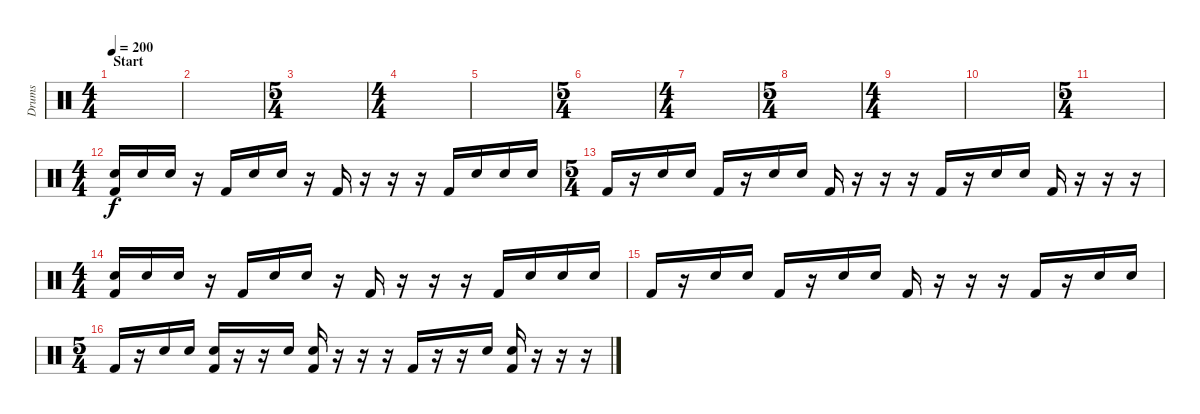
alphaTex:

\track ("Drums" "Drums") {instrument percussion}
\staff {score}
\articulation defaults
\ts (4 4)
\section ("" "Start")
\tempo 200
\clef neutral
\ks c
|
|
\ts (5 4)
|
\ts (4 4)
|
|
\ts (5 4)
|
\ts (4 4)
|
\ts (5 4)
|
\ts (4 4)
|
|
\ts (5 4)
|
\ts (4 4)
("Electric Snare (hit)" "Kick (hit) 2").16 "Electric Snare (hit)".16 "Electric Snare (hit)".16 r.16 "Kick (hit) 2".16 "Electric Snare (hit)".16 "Electric Snare (hit)".16 r.16 "Kick (hit) 2".16 r.16 r.16 r.16 "Kick (hit) 2".16 "Electric Snare (hit)".16 "Electric Snare (hit)".16 "Electric Snare (hit)".16 |
\ts (5 4)
"Kick (hit) 2".16 r.16 "Electric Snare (hit)".16 "Electric Snare (hit)".16 "Kick (hit) 2".16 r.16 "Electric Snare (hit)".16 "Electric Snare (hit)".16 "Kick (hit) 2".16 r.16 r.16 r.16 "Kick (hit) 2".16 r.16 "Electric Snare (hit)".16 "Electric Snare (hit)".16 "Kick (hit) 2".16 r.16 r.16 r.16 |
\ts (4 4)
("Electric Snare (hit)" "Kick (hit) 2").16 "Electric Snare (hit)".16 "Electric Snare (hit)".16 r.16 "Kick (hit) 2".16 "Electric Snare (hit)".16 "Electric Snare (hit)".16 r.16 "Kick (hit) 2".16 r.16 r.16 r.16 "Kick (hit) 2".16 "Electric Snare (hit)".16 "Electric Snare (hit)".16 "Electric Snare (hit)".16 |
"Kick (hit) 2".16 r.16 "Electric Snare (hit)".16 "Electric Snare (hit)".16 "Kick (hit) 2".16 r.16 "Electric Snare (hit)".16 "Electric Snare (hit)".16 "Kick (hit) 2".16 r.16 r.16 r.16 "Kick (hit) 2".16 r.16 "Electric Snare (hit)".16 "Electric Snare (hit)".16 |
\ts (5 4)
"Kick (hit) 2".16 r.16 "Electric Snare (hit)".16 "Electric Snare (hit)".16 ("Electric Snare (hit)" "Kick (hit) 2").16 r.16 r.16 "Electric Snare (hit)".16 ("Electric Snare (hit)" "Kick (hit) 2").16 r.16 r.16 r.16 "Kick (hit) 2".16 r.16 r.16 "Electric Snare (hit)".16 ("Electric Snare (hit)" "Kick (hit) 2").16 r.16 r.16 r.16
